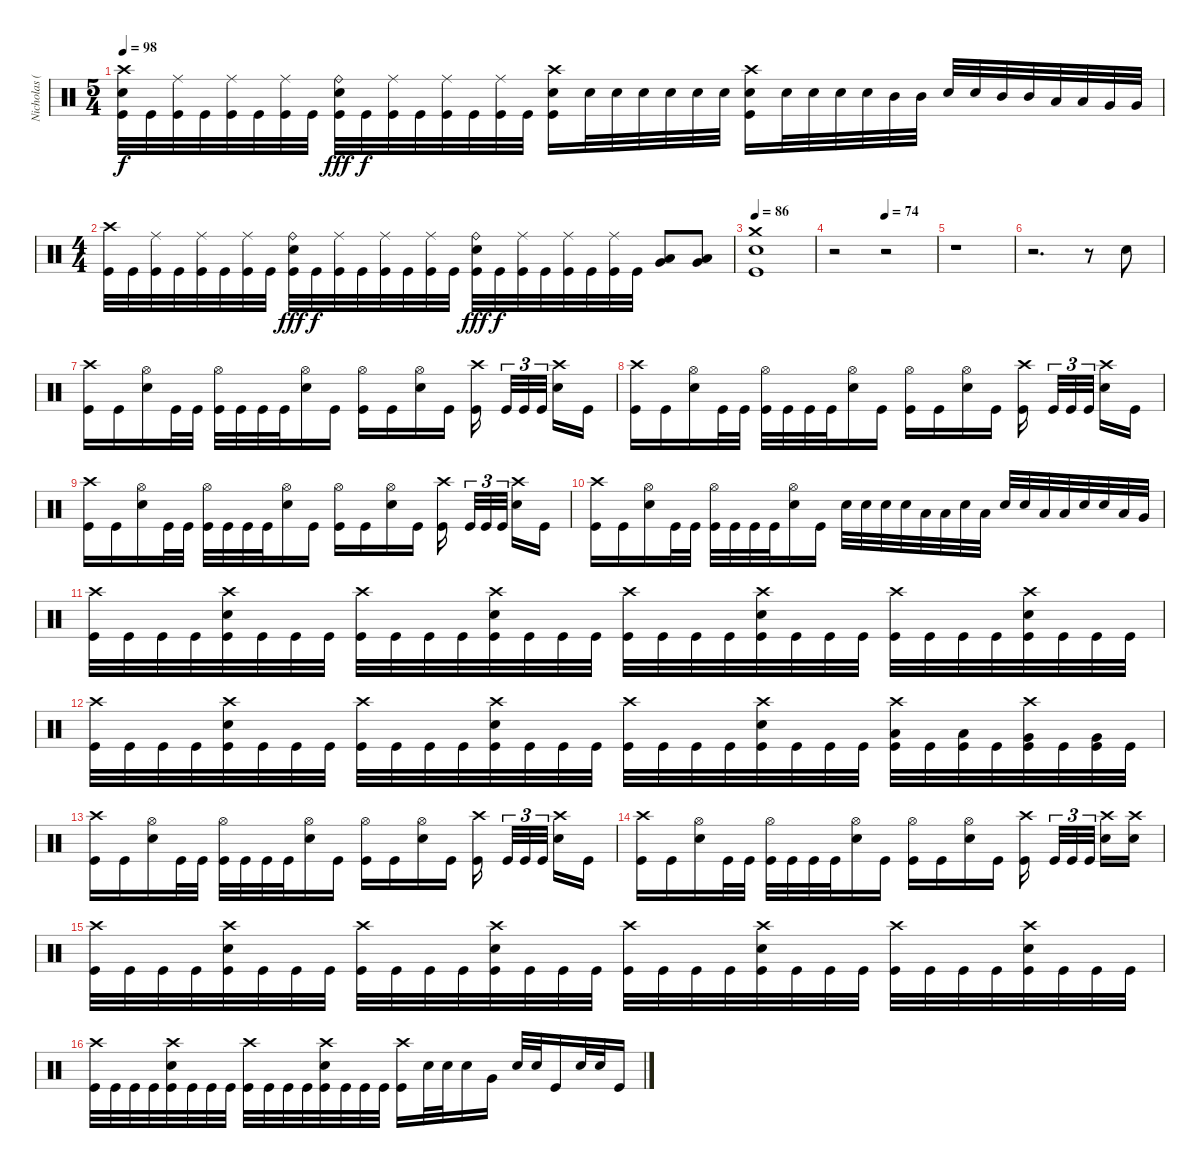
\track ("Nicholas (Drums)" "Nicholas (") {instrument percussion}
\staff {score}
\articulation defaults
\ts (5 4)
\tempo 98
\clef neutral
\ks c
("Crash high (hit)" "Electric Snare (hit)" "Kick (hit)").32{dy f} "Kick (hit)".32 ("Ride (middle)" "Kick (hit)").32 "Kick (hit)".32 ("Ride (middle)" "Kick (hit)").32 "Kick (hit)".32 ("Ride (middle)" "Kick (hit)").32 "Kick (hit)".32 ("Ride (bell)" "Electric Snare (hit)" "Kick (hit)").32{dy fff} "Kick (hit)".32{dy f} ("Ride (middle)" "Kick (hit)").32 "Kick (hit)".32 ("Ride (middle)" "Kick (hit)").32 "Kick (hit)".32 ("Ride (middle)" "Kick (hit)").32 "Kick (hit)".32 ("Crash high (hit)" "Electric Snare (hit)" "Kick (hit)").16 "Electric Snare (hit)".32 "Electric Snare (hit)".32 "Electric Snare (hit)".32 "Electric Snare (hit)".32 "Electric Snare (hit)".32 "Electric Snare (hit)".32 ("Crash high (hit)" "Electric Snare (hit)" "Kick (hit)").16 "Electric Snare (hit)".32 "Electric Snare (hit)".32 "Electric Snare (hit)".32 "Electric Snare (hit)".32 "Mid Tom (hit)".32 "Mid Tom (hit)".32 "Electric Snare (hit)".32 "Electric Snare (hit)".32 "Mid Tom (hit)".32 "Mid Tom (hit)".32 "Low Tom (hit)".32 "Low Tom (hit)".32 "Very Low Tom (hit)".32 "Very Low Tom (hit)".32 |
\ts (4 4)
("Crash high (hit)" "Kick (hit)").32 "Kick (hit)".32 ("Ride (middle)" "Kick (hit)").32 "Kick (hit)".32 ("Ride (middle)" "Kick (hit)").32 "Kick (hit)".32 ("Ride (middle)" "Kick (hit)").32 "Kick (hit)".32 ("Ride (bell)" "Electric Snare (hit)" "Kick (hit)").32{dy fff} "Kick (hit)".32{dy f} ("Ride (middle)" "Kick (hit)").32 "Kick (hit)".32 ("Ride (middle)" "Kick (hit)").32 "Kick (hit)".32 ("Ride (middle)" "Kick (hit)").32 "Kick (hit)".32 ("Ride (bell)" "Electric Snare (hit)" "Kick (hit)").32{dy fff} "Kick (hit)".32{dy f} ("Ride (middle)" "Kick (hit)").32 "Kick (hit)".32 ("Ride (middle)" "Kick (hit)").32 "Kick (hit)".32 ("Ride (middle)" "Kick (hit)").32 "Kick (hit)".32 ("Low Tom (hit)" "Very Low Tom (hit)").8{bu 60} ("Low Tom (hit)" "Very Low Tom (hit)").8{bu 60} |
\tempo 86
("Crash medium (hit)" "Electric Snare (hit)" "Kick (hit)").1 |
\tempo (74 0.5)
r.2 r.2 |
r.1 |
r.2{d} r.8 "Electric Snare (hit)".8 |
("Crash high (hit)" "Kick (hit)").16 "Kick (hit)".16 ("Hi-Hat (open)" "Electric Snare (hit)").16 "Kick (hit)".32 "Kick (hit)".32 ("Hi-Hat (open)" "Kick (hit)").32 "Kick (hit)".32 "Kick (hit)".32 "Kick (hit)".32 ("Hi-Hat (open)" "Electric Snare (hit)").16 "Kick (hit)".16 ("Hi-Hat (open)" "Kick (hit)").16 "Kick (hit)".16 ("Hi-Hat (open)" "Electric Snare (hit)").16 "Kick (hit)".16 ("Crash high (hit)" "Kick (hit)").16 "Kick (hit)".32{tu (3 2)} "Kick (hit)".32{tu (3 2)} "Kick (hit)".32{tu (3 2)} ("Crash high (hit)" "Electric Snare (hit)").16 "Kick (hit)".16 |
("Crash high (hit)" "Kick (hit)").16 "Kick (hit)".16 ("Hi-Hat (open)" "Electric Snare (hit)").16 "Kick (hit)".32 "Kick (hit)".32 ("Hi-Hat (open)" "Kick (hit)").32 "Kick (hit)".32 "Kick (hit)".32 "Kick (hit)".32 ("Hi-Hat (open)" "Electric Snare (hit)").16 "Kick (hit)".16 ("Hi-Hat (open)" "Kick (hit)").16 "Kick (hit)".16 ("Hi-Hat (open)" "Electric Snare (hit)").16 "Kick (hit)".16 ("Crash high (hit)" "Kick (hit)").16 "Kick (hit)".32{tu (3 2)} "Kick (hit)".32{tu (3 2)} "Kick (hit)".32{tu (3 2)} ("Crash high (hit)" "Electric Snare (hit)").16 "Kick (hit)".16 |
("Crash high (hit)" "Kick (hit)").16 "Kick (hit)".16 ("Hi-Hat (open)" "Electric Snare (hit)").16 "Kick (hit)".32 "Kick (hit)".32 ("Hi-Hat (open)" "Kick (hit)").32 "Kick (hit)".32 "Kick (hit)".32 "Kick (hit)".32 ("Hi-Hat (open)" "Electric Snare (hit)").16 "Kick (hit)".16 ("Hi-Hat (open)" "Kick (hit)").16 "Kick (hit)".16 ("Hi-Hat (open)" "Electric Snare (hit)").16 "Kick (hit)".16 ("Crash high (hit)" "Kick (hit)").16 "Kick (hit)".32{tu (3 2)} "Kick (hit)".32{tu (3 2)} "Kick (hit)".32{tu (3 2)} ("Crash high (hit)" "Electric Snare (hit)").16 "Kick (hit)".16 |
("Crash high (hit)" "Kick (hit)").16 "Kick (hit)".16 ("Hi-Hat (open)" "Electric Snare (hit)").16 "Kick (hit)".32 "Kick (hit)".32 ("Hi-Hat (open)" "Kick (hit)").32 "Kick (hit)".32 "Kick (hit)".32 "Kick (hit)".32 ("Hi-Hat (open)" "Electric Snare (hit)").16 "Kick (hit)".16 "Electric Snare (hit)".32 "Electric Snare (hit)".32 "Electric Snare (hit)".32 "Electric Snare (hit)".32 "Low Tom (hit)".32 "Low Tom (hit)".32 "Electric Snare (hit)".32 "Low Tom (hit)".32 "Electric Snare (hit)".32 "Electric Snare (hit)".32 "Low Tom (hit)".32 "Low Tom (hit)".32 "Electric Snare (hit)".32 "Electric Snare (hit)".32 "Low Tom (hit)".32 "Very Low Tom (hit)".32 |
("Crash high (hit)" "Kick (hit)").32 "Kick (hit)".32 "Kick (hit)".32 "Kick (hit)".32 ("Crash high (hit)" "Electric Snare (hit)" "Kick (hit)").32 "Kick (hit)".32 "Kick (hit)".32 "Kick (hit)".32 ("Crash high (hit)" "Kick (hit)").32 "Kick (hit)".32 "Kick (hit)".32 "Kick (hit)".32 ("Crash high (hit)" "Electric Snare (hit)" "Kick (hit)").32 "Kick (hit)".32 "Kick (hit)".32 "Kick (hit)".32 ("Crash high (hit)" "Kick (hit)").32 "Kick (hit)".32 "Kick (hit)".32 "Kick (hit)".32 ("Crash high (hit)" "Electric Snare (hit)" "Kick (hit)").32 "Kick (hit)".32 "Kick (hit)".32 "Kick (hit)".32 ("Crash high (hit)" "Kick (hit)").32 "Kick (hit)".32 "Kick (hit)".32 "Kick (hit)".32 ("Crash high (hit)" "Electric Snare (hit)" "Kick (hit)").32 "Kick (hit)".32 "Kick (hit)".32 "Kick (hit)".32 |
("Crash high (hit)" "Kick (hit)").32 "Kick (hit)".32 "Kick (hit)".32 "Kick (hit)".32 ("Crash high (hit)" "Electric Snare (hit)" "Kick (hit)").32 "Kick (hit)".32 "Kick (hit)".32 "Kick (hit)".32 ("Crash high (hit)" "Kick (hit)").32 "Kick (hit)".32 "Kick (hit)".32 "Kick (hit)".32 ("Crash high (hit)" "Electric Snare (hit)" "Kick (hit)").32 "Kick (hit)".32 "Kick (hit)".32 "Kick (hit)".32 ("Crash high (hit)" "Kick (hit)").32 "Kick (hit)".32 "Kick (hit)".32 "Kick (hit)".32 ("Crash high (hit)" "Electric Snare (hit)" "Kick (hit)").32 "Kick (hit)".32 "Kick (hit)".32 "Kick (hit)".32 ("Crash high (hit)" "Low Tom (hit)" "Kick (hit)").32 "Kick (hit)".32 ("Low Tom (hit)" "Kick (hit)").32 "Kick (hit)".32 ("Crash high (hit)" "Very Low Tom (hit)" "Kick (hit)").32 "Kick (hit)".32 ("Very Low Tom (hit)" "Kick (hit)").32 "Kick (hit)".32 |
("Crash high (hit)" "Kick (hit)").16 "Kick (hit)".16 ("Hi-Hat (open)" "Electric Snare (hit)").16 "Kick (hit)".32 "Kick (hit)".32 ("Hi-Hat (open)" "Kick (hit)").32 "Kick (hit)".32 "Kick (hit)".32 "Kick (hit)".32 ("Hi-Hat (open)" "Electric Snare (hit)").16 "Kick (hit)".16 ("Hi-Hat (open)" "Kick (hit)").16 "Kick (hit)".16 ("Hi-Hat (open)" "Electric Snare (hit)").16 "Kick (hit)".16 ("Crash high (hit)" "Kick (hit)").16 "Kick (hit)".32{tu (3 2)} "Kick (hit)".32{tu (3 2)} "Kick (hit)".32{tu (3 2)} ("Crash high (hit)" "Electric Snare (hit)").16 "Kick (hit)".16 |
("Crash high (hit)" "Kick (hit)").16 "Kick (hit)".16 ("Hi-Hat (open)" "Electric Snare (hit)").16 "Kick (hit)".32 "Kick (hit)".32 ("Hi-Hat (open)" "Kick (hit)").32 "Kick (hit)".32 "Kick (hit)".32 "Kick (hit)".32 ("Hi-Hat (open)" "Electric Snare (hit)").16 "Kick (hit)".16 ("Hi-Hat (open)" "Kick (hit)").16 "Kick (hit)".16 ("Hi-Hat (open)" "Electric Snare (hit)").16 "Kick (hit)".16 ("Crash high (hit)" "Kick (hit)").16 "Kick (hit)".32{tu (3 2)} "Kick (hit)".32{tu (3 2)} "Kick (hit)".32{tu (3 2)} ("Crash high (hit)" "Electric Snare (hit)").16 ("Crash high (hit)" "Electric Snare (hit)").16 |
("Crash high (hit)" "Kick (hit)").32 "Kick (hit)".32 "Kick (hit)".32 "Kick (hit)".32 ("Crash high (hit)" "Electric Snare (hit)" "Kick (hit)").32 "Kick (hit)".32 "Kick (hit)".32 "Kick (hit)".32 ("Crash high (hit)" "Kick (hit)").32 "Kick (hit)".32 "Kick (hit)".32 "Kick (hit)".32 ("Crash high (hit)" "Electric Snare (hit)" "Kick (hit)").32 "Kick (hit)".32 "Kick (hit)".32 "Kick (hit)".32 ("Crash high (hit)" "Kick (hit)").32 "Kick (hit)".32 "Kick (hit)".32 "Kick (hit)".32 ("Crash high (hit)" "Electric Snare (hit)" "Kick (hit)").32 "Kick (hit)".32 "Kick (hit)".32 "Kick (hit)".32 ("Crash high (hit)" "Kick (hit)").32 "Kick (hit)".32 "Kick (hit)".32 "Kick (hit)".32 ("Crash high (hit)" "Electric Snare (hit)" "Kick (hit)").32 "Kick (hit)".32 "Kick (hit)".32 "Kick (hit)".32 |
("Crash high (hit)" "Kick (hit)").32 "Kick (hit)".32 "Kick (hit)".32 "Kick (hit)".32 ("Crash high (hit)" "Electric Snare (hit)" "Kick (hit)").32 "Kick (hit)".32 "Kick (hit)".32 "Kick (hit)".32 ("Crash high (hit)" "Kick (hit)").32 "Kick (hit)".32 "Kick (hit)".32 "Kick (hit)".32 ("Crash high (hit)" "Electric Snare (hit)" "Kick (hit)").32 "Kick (hit)".32 "Kick (hit)".32 "Kick (hit)".32 ("Crash high (hit)" "Kick (hit)").16 "Electric Snare (hit)".32 "Electric Snare (hit)".32 "Electric Snare (hit)".16 "Very Low Tom (hit)".16 "Electric Snare (hit)".32 "Electric Snare (hit)".32 "Kick (hit)".16 "Electric Snare (hit)".32 "Electric Snare (hit)".32 "Kick (hit)".16
